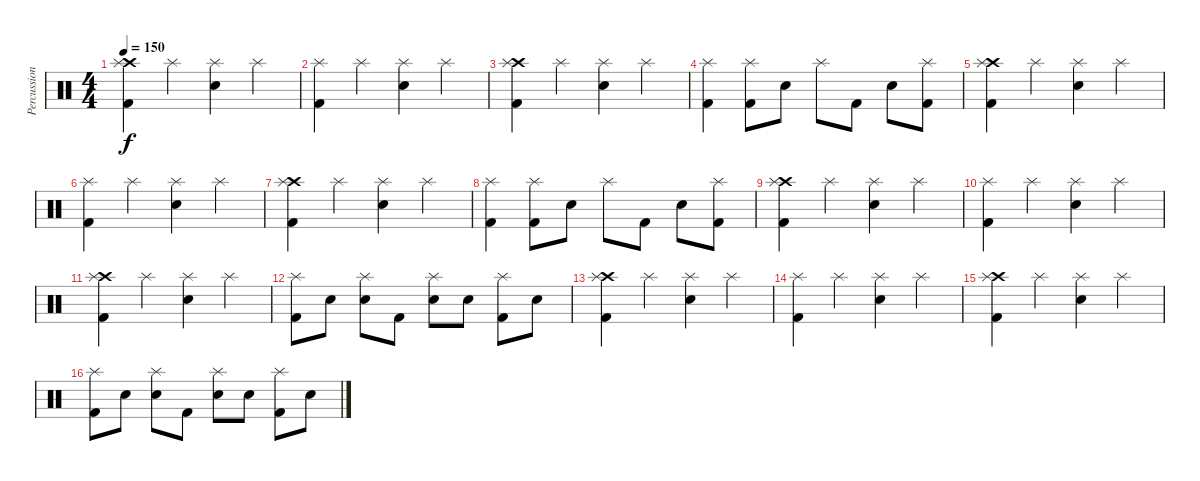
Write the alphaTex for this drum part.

\track ("Percussion" "Percussion") {instrument percussion}
\staff {score}
\articulation defaults
\ts (4 4)
\tempo 150
\clef neutral
\ks c
("Crash high (hit)" "Splash (hit)" "Kick (hit) 2").4{dy f} "Splash (hit)".4 ("Splash (hit)" "Snare (hit) 2").4 "Splash (hit)".4 |
("Splash (hit)" "Kick (hit) 2").4 "Splash (hit)".4 ("Splash (hit)" "Snare (hit) 2").4 "Splash (hit)".4 |
("Crash high (hit)" "Splash (hit)" "Kick (hit) 2").4 "Splash (hit)".4 ("Splash (hit)" "Snare (hit) 2").4 "Splash (hit)".4 |
("Splash (hit)" "Kick (hit) 2").4 ("Splash (hit)" "Kick (hit) 2").8 "Snare (hit) 2".8 "Splash (hit)".8 "Kick (hit) 2".8 "Snare (hit) 2".8 ("Splash (hit)" "Kick (hit) 2").8 |
("Crash high (hit)" "Splash (hit)" "Kick (hit) 2").4 "Splash (hit)".4 ("Splash (hit)" "Snare (hit) 2").4 "Splash (hit)".4 |
("Splash (hit)" "Kick (hit) 2").4 "Splash (hit)".4 ("Splash (hit)" "Snare (hit) 2").4 "Splash (hit)".4 |
("Crash high (hit)" "Splash (hit)" "Kick (hit) 2").4 "Splash (hit)".4 ("Splash (hit)" "Snare (hit) 2").4 "Splash (hit)".4 |
("Splash (hit)" "Kick (hit) 2").4 ("Splash (hit)" "Kick (hit) 2").8 "Snare (hit) 2".8 "Splash (hit)".8 "Kick (hit) 2".8 "Snare (hit) 2".8 ("Splash (hit)" "Kick (hit) 2").8 |
("Crash high (hit)" "Splash (hit)" "Kick (hit) 2").4 "Splash (hit)".4 ("Splash (hit)" "Snare (hit) 2").4 "Splash (hit)".4 |
("Splash (hit)" "Kick (hit) 2").4 "Splash (hit)".4 ("Splash (hit)" "Snare (hit) 2").4 "Splash (hit)".4 |
("Crash high (hit)" "Splash (hit)" "Kick (hit) 2").4 "Splash (hit)".4 ("Splash (hit)" "Snare (hit) 2").4 "Splash (hit)".4 |
("Splash (hit)" "Kick (hit) 2").8 "Snare (hit) 2".8 ("Splash (hit)" "Snare (hit) 2").8 "Kick (hit) 2".8 ("Splash (hit)" "Snare (hit) 2").8 "Snare (hit) 2".8 ("Splash (hit)" "Kick (hit) 2").8 "Snare (hit) 2".8 |
("Crash high (hit)" "Splash (hit)" "Kick (hit) 2").4 "Splash (hit)".4 ("Splash (hit)" "Snare (hit) 2").4 "Splash (hit)".4 |
("Splash (hit)" "Kick (hit) 2").4 "Splash (hit)".4 ("Splash (hit)" "Snare (hit) 2").4 "Splash (hit)".4 |
("Crash high (hit)" "Splash (hit)" "Kick (hit) 2").4 "Splash (hit)".4 ("Splash (hit)" "Snare (hit) 2").4 "Splash (hit)".4 |
("Splash (hit)" "Kick (hit) 2").8 "Snare (hit) 2".8 ("Splash (hit)" "Snare (hit) 2").8 "Kick (hit) 2".8 ("Splash (hit)" "Snare (hit) 2").8 "Snare (hit) 2".8 ("Splash (hit)" "Kick (hit) 2").8 "Snare (hit) 2".8
